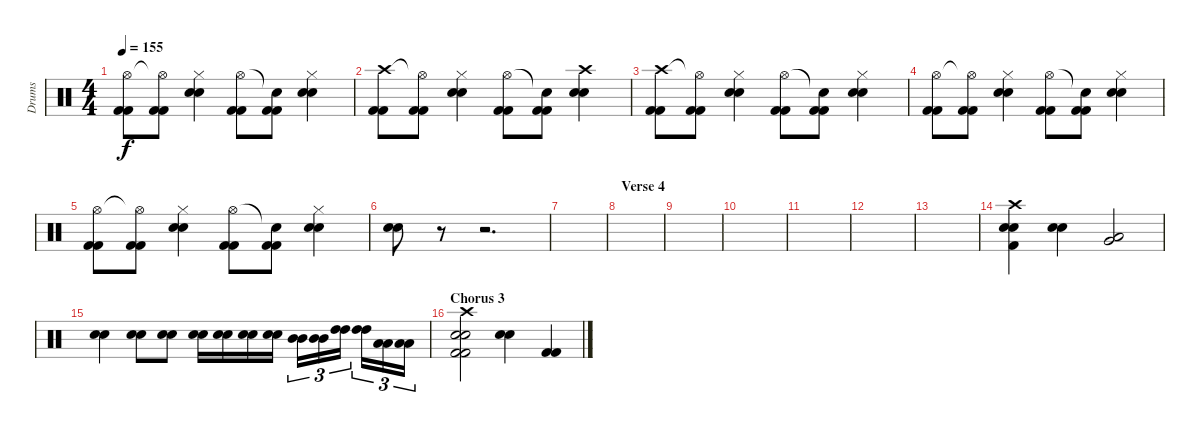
\track ("Drums" "Drums") {instrument percussion}
\staff {score}
\articulation defaults
\ts (4 4)
\tempo 155
\clef neutral
\ks c
("Hi-Hat (open)" "Kick (hit) 2" "Kick (hit) 2").8{dy f} ("Hi-Hat (open)"{t} "Kick (hit) 2" "Kick (hit) 2").8 ("Hi-Hat (closed)" "Snare (hit) 2" "Snare (hit) 2").4 ("Hi-Hat (open)" "Kick (hit) 2" "Kick (hit) 2").8 ("Snare (hit)"{t} "Kick (hit) 2" "Kick (hit) 2").8 ("Hi-Hat (closed)" "Snare (hit) 2" "Snare (hit) 2").4 |
("Crash high (hit)" "Kick (hit) 2" "Kick (hit) 2").8 ("Hi-Hat (open)"{t} "Kick (hit) 2" "Kick (hit) 2").8 ("Hi-Hat (closed)" "Snare (hit) 2" "Snare (hit) 2").4 ("Hi-Hat (open)" "Kick (hit) 2" "Kick (hit) 2").8 ("Snare (hit)"{t} "Kick (hit) 2" "Kick (hit) 2").8 ("Crash high (hit)" "Snare (hit) 2" "Snare (hit) 2").4 |
("Crash high (hit)" "Kick (hit) 2" "Kick (hit) 2").8 ("Hi-Hat (open)"{t} "Kick (hit) 2" "Kick (hit) 2").8 ("Hi-Hat (closed)" "Snare (hit) 2" "Snare (hit) 2").4 ("Hi-Hat (open)" "Kick (hit) 2" "Kick (hit) 2").8 ("Snare (hit)"{t} "Kick (hit) 2" "Kick (hit) 2").8 ("Hi-Hat (closed)" "Snare (hit) 2" "Snare (hit) 2").4 |
("Hi-Hat (open)" "Kick (hit) 2" "Kick (hit) 2").8 ("Hi-Hat (open)"{t} "Kick (hit) 2" "Kick (hit) 2").8 ("Hi-Hat (closed)" "Snare (hit) 2" "Snare (hit) 2").4 ("Hi-Hat (open)" "Kick (hit) 2" "Kick (hit) 2").8 ("Snare (hit)"{t} "Kick (hit) 2" "Kick (hit) 2").8 ("Hi-Hat (closed)" "Snare (hit) 2" "Snare (hit) 2").4 |
("Hi-Hat (open)" "Kick (hit) 2" "Kick (hit) 2").8 ("Hi-Hat (open)"{t} "Kick (hit) 2" "Kick (hit) 2").8 ("Hi-Hat (closed)" "Snare (hit) 2" "Snare (hit) 2").4 ("Hi-Hat (open)" "Kick (hit) 2" "Kick (hit) 2").8 ("Snare (hit)"{t} "Kick (hit) 2" "Kick (hit) 2").8 ("Hi-Hat (closed)" "Snare (hit) 2" "Snare (hit) 2").4 |
("Snare (hit) 2" "Snare (hit) 2").8 r.8 r.2{d} |
|
\section ("" "Verse 4")
|
|
|
|
|
|
("Crash high (hit)" "Snare (hit) 2" "Snare (hit) 2" "Kick (hit) 2").4 ("Snare (hit) 2" "Snare (hit) 2").4 ("Very Low Tom (hit)" "Low Floor Tom (hit)").2 |
("Snare (hit) 2" "Snare (hit) 2").4 ("Snare (hit) 2" "Snare (hit) 2").8 ("Snare (hit) 2" "Snare (hit) 2").8 ("Snare (hit) 2" "Snare (hit) 2").16 ("Snare (hit) 2" "Snare (hit) 2").16 ("Snare (hit) 2" "Snare (hit) 2").16 ("Snare (hit) 2" "Snare (hit) 2").16 ("Mid Tom (hit)" "Mid Tom (hit)").16{tu (3 2)} ("Mid Tom (hit)" "Mid Tom (hit)").16{tu (3 2)} ("High Tom (hit)" "High Tom (hit)").16{tu (3 2)} ("High Tom (hit)" "High Tom (hit)").16{tu (3 2)} ("Low Tom (hit)" "Low Tom (hit)").16{tu (3 2)} ("Low Tom (hit)" "Low Tom (hit)").16{tu (3 2)} |
\section ("" "Chorus 3")
("Crash high (hit)" "Snare (hit) 2" "Snare (hit) 2" "Kick (hit) 2" "Kick (hit) 2").2 ("Snare (hit) 2" "Snare (hit) 2").4 ("Kick (hit) 2" "Kick (hit) 2").4
